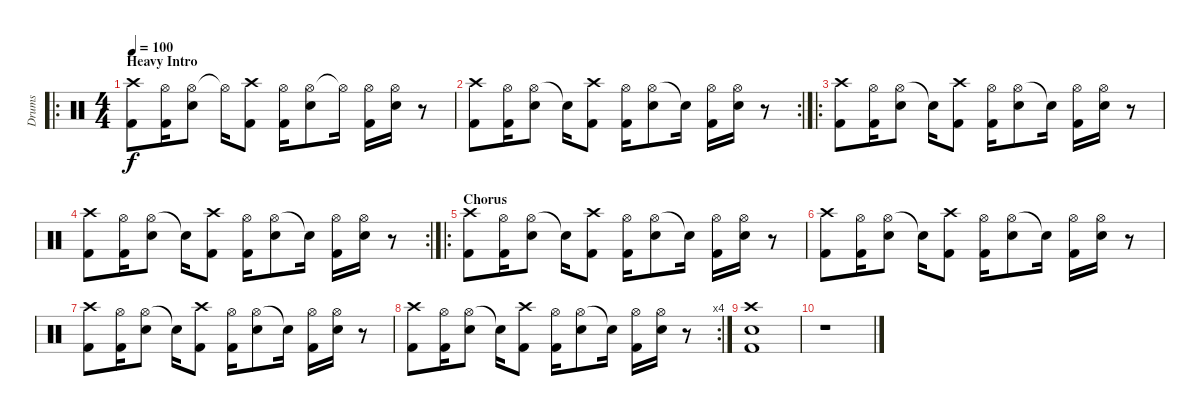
\track ("Drums" "Drums") {instrument percussion}
\staff {score}
\articulation defaults
\ro
\ts (4 4)
\section ("" "Heavy Intro")
\tempo 100
\clef neutral
\ks c
("Crash high (hit)" "Kick (hit) 2").8{dy f volume 16} ("Hi-Hat (open)" "Kick (hit) 2").16 ("Hi-Hat (open)" "Snare (hit) 2").8 "Hi-Hat (open)"{t}.16 ("Crash high (hit)" "Kick (hit) 2").8 ("Hi-Hat (open)" "Kick (hit) 2").16 ("Hi-Hat (open)" "Snare (hit) 2").8 "Hi-Hat (open)"{t}.16 ("Hi-Hat (open)" "Kick (hit) 2").16 ("Hi-Hat (open)" "Snare (hit) 2").16 r.8 |
\rc 2
("Crash high (hit)" "Kick (hit) 2").8 ("Hi-Hat (open)" "Kick (hit) 2").16 ("Hi-Hat (open)" "Snare (hit) 2").8 "Snare (hit)"{t}.16 ("Crash high (hit)" "Kick (hit) 2").8 ("Hi-Hat (open)" "Kick (hit) 2").16 ("Hi-Hat (open)" "Snare (hit) 2").8 "Snare (hit)"{t}.16 ("Hi-Hat (open)" "Kick (hit) 2").16 ("Hi-Hat (open)" "Snare (hit) 2").16 r.8 |
\ro
("Crash high (hit)" "Kick (hit) 2").8 ("Hi-Hat (open)" "Kick (hit) 2").16 ("Hi-Hat (open)" "Snare (hit) 2").8 "Snare (hit)"{t}.16 ("Crash high (hit)" "Kick (hit) 2").8 ("Hi-Hat (open)" "Kick (hit) 2").16 ("Hi-Hat (open)" "Snare (hit) 2").8 "Snare (hit)"{t}.16 ("Hi-Hat (open)" "Kick (hit) 2").16 ("Hi-Hat (open)" "Snare (hit) 2").16 r.8 |
\rc 2
("Crash high (hit)" "Kick (hit) 2").8 ("Hi-Hat (open)" "Kick (hit) 2").16 ("Hi-Hat (open)" "Snare (hit) 2").8 "Snare (hit)"{t}.16 ("Crash high (hit)" "Kick (hit) 2").8 ("Hi-Hat (open)" "Kick (hit) 2").16 ("Hi-Hat (open)" "Snare (hit) 2").8 "Snare (hit)"{t}.16 ("Hi-Hat (open)" "Kick (hit) 2").16 ("Hi-Hat (open)" "Snare (hit) 2").16 r.8 |
\ro
\section ("" "Chorus")
("Crash high (hit)" "Kick (hit) 2").8 ("Hi-Hat (open)" "Kick (hit) 2").16 ("Hi-Hat (open)" "Snare (hit) 2").8 "Snare (hit)"{t}.16 ("Crash high (hit)" "Kick (hit) 2").8 ("Hi-Hat (open)" "Kick (hit) 2").16 ("Hi-Hat (open)" "Snare (hit) 2").8 "Snare (hit)"{t}.16 ("Hi-Hat (open)" "Kick (hit) 2").16 ("Hi-Hat (open)" "Snare (hit) 2").16 r.8 |
("Crash high (hit)" "Kick (hit) 2").8 ("Hi-Hat (open)" "Kick (hit) 2").16 ("Hi-Hat (open)" "Snare (hit) 2").8 "Snare (hit)"{t}.16 ("Crash high (hit)" "Kick (hit) 2").8 ("Hi-Hat (open)" "Kick (hit) 2").16 ("Hi-Hat (open)" "Snare (hit) 2").8 "Snare (hit)"{t}.16 ("Hi-Hat (open)" "Kick (hit) 2").16 ("Hi-Hat (open)" "Snare (hit) 2").16 r.8 |
("Crash high (hit)" "Kick (hit) 2").8 ("Hi-Hat (open)" "Kick (hit) 2").16 ("Hi-Hat (open)" "Snare (hit) 2").8 "Snare (hit)"{t}.16 ("Crash high (hit)" "Kick (hit) 2").8 ("Hi-Hat (open)" "Kick (hit) 2").16 ("Hi-Hat (open)" "Snare (hit) 2").8 "Snare (hit)"{t}.16 ("Hi-Hat (open)" "Kick (hit) 2").16 ("Hi-Hat (open)" "Snare (hit) 2").16 r.8 |
\rc 4
("Crash high (hit)" "Kick (hit) 2").8 ("Hi-Hat (open)" "Kick (hit) 2").16 ("Hi-Hat (open)" "Snare (hit) 2").8 "Snare (hit)"{t}.16 ("Crash high (hit)" "Kick (hit) 2").8 ("Hi-Hat (open)" "Kick (hit) 2").16 ("Hi-Hat (open)" "Snare (hit) 2").8 "Snare (hit)"{t}.16 ("Hi-Hat (open)" "Kick (hit) 2").16 ("Hi-Hat (open)" "Snare (hit) 2").16 r.8 |
("Crash high (hit)" "Snare (hit) 2" "Kick (hit) 2").1 |
r.1
